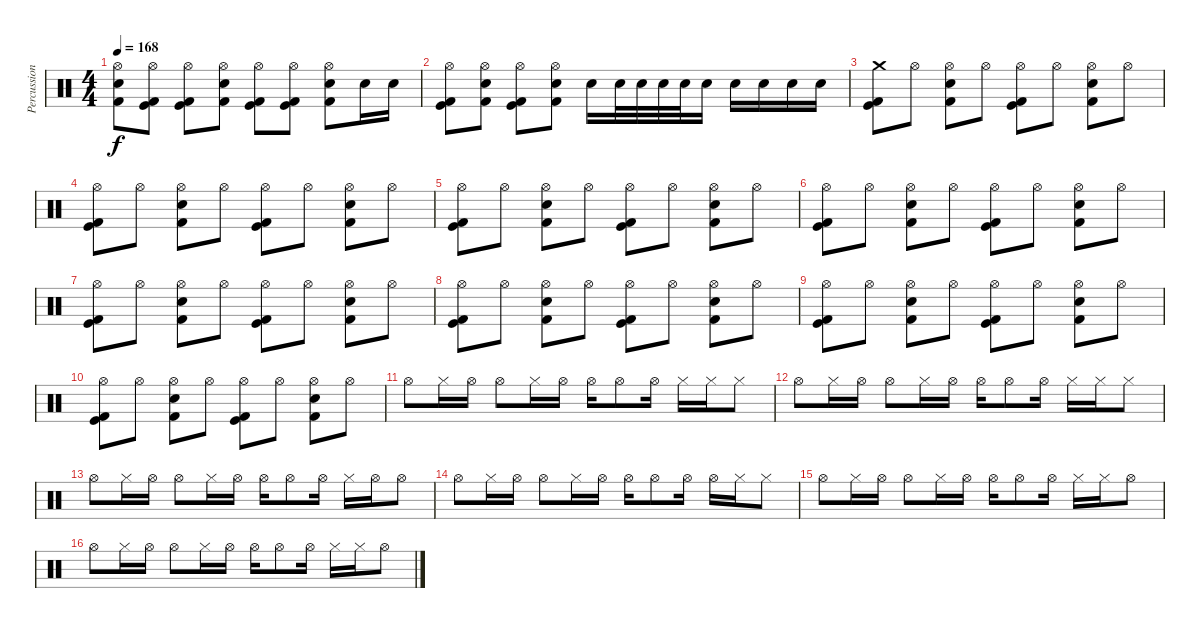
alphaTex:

\track ("Percussion" "Percussion") {instrument percussion}
\staff {score}
\articulation defaults
\ts (4 4)
\tempo 168
\clef neutral
\ks c
("Hi-Hat (open)" "Electric Snare (hit)" "Kick (hit) 2").8{dy f} ("Hi-Hat (open)" "Kick (hit)" "Kick (hit) 2").8 ("Hi-Hat (open)" "Kick (hit)" "Kick (hit) 2").8 ("Hi-Hat (open)" "Electric Snare (hit)" "Kick (hit) 2").8 ("Hi-Hat (open)" "Kick (hit)" "Kick (hit) 2").8 ("Hi-Hat (open)" "Kick (hit)" "Kick (hit) 2").8 ("Hi-Hat (open)" "Electric Snare (hit)" "Kick (hit) 2").8 "Electric Snare (hit)".16 "Electric Snare (hit)".16 |
("Hi-Hat (open)" "Kick (hit)" "Kick (hit) 2").8 ("Hi-Hat (open)" "Electric Snare (hit)" "Kick (hit) 2").8 ("Hi-Hat (open)" "Kick (hit)" "Kick (hit) 2").8 ("Hi-Hat (open)" "Electric Snare (hit)" "Kick (hit) 2").8 "Electric Snare (hit)".16 "Electric Snare (hit)".32 "Electric Snare (hit)".32 "Electric Snare (hit)".32 "Electric Snare (hit)".32 "Electric Snare (hit)".16 "Electric Snare (hit)".16 "Electric Snare (hit)".16 "Electric Snare (hit)".16 "Electric Snare (hit)".16 |
("Crash medium (hit)" "Kick (hit)" "Kick (hit) 2").8 "Hi-Hat (open)".8 ("Hi-Hat (open)" "Electric Snare (hit)" "Kick (hit) 2").8 "Hi-Hat (open)".8 ("Hi-Hat (open)" "Kick (hit)" "Kick (hit) 2").8 "Hi-Hat (open)".8 ("Hi-Hat (open)" "Electric Snare (hit)" "Kick (hit) 2").8 "Hi-Hat (open)".8 |
("Hi-Hat (open)" "Kick (hit)" "Kick (hit) 2").8 "Hi-Hat (open)".8 ("Hi-Hat (open)" "Electric Snare (hit)" "Kick (hit) 2").8 "Hi-Hat (open)".8 ("Hi-Hat (open)" "Kick (hit)" "Kick (hit) 2").8 "Hi-Hat (open)".8 ("Hi-Hat (open)" "Electric Snare (hit)" "Kick (hit) 2").8 "Hi-Hat (open)".8 |
("Hi-Hat (open)" "Kick (hit)" "Kick (hit) 2").8 "Hi-Hat (open)".8 ("Hi-Hat (open)" "Electric Snare (hit)" "Kick (hit) 2").8 "Hi-Hat (open)".8 ("Hi-Hat (open)" "Kick (hit)" "Kick (hit) 2").8 "Hi-Hat (open)".8 ("Hi-Hat (open)" "Electric Snare (hit)" "Kick (hit) 2").8 "Hi-Hat (open)".8 |
("Hi-Hat (open)" "Kick (hit)" "Kick (hit) 2").8 "Hi-Hat (open)".8 ("Hi-Hat (open)" "Electric Snare (hit)" "Kick (hit) 2").8 "Hi-Hat (open)".8 ("Hi-Hat (open)" "Kick (hit)" "Kick (hit) 2").8 "Hi-Hat (open)".8 ("Hi-Hat (open)" "Electric Snare (hit)" "Kick (hit) 2").8 "Hi-Hat (open)".8 |
("Hi-Hat (open)" "Kick (hit)" "Kick (hit) 2").8 "Hi-Hat (open)".8 ("Hi-Hat (open)" "Electric Snare (hit)" "Kick (hit) 2").8 "Hi-Hat (open)".8 ("Hi-Hat (open)" "Kick (hit)" "Kick (hit) 2").8 "Hi-Hat (open)".8 ("Hi-Hat (open)" "Electric Snare (hit)" "Kick (hit) 2").8 "Hi-Hat (open)".8 |
("Hi-Hat (open)" "Kick (hit)" "Kick (hit) 2").8 "Hi-Hat (open)".8 ("Hi-Hat (open)" "Electric Snare (hit)" "Kick (hit) 2").8 "Hi-Hat (open)".8 ("Hi-Hat (open)" "Kick (hit)" "Kick (hit) 2").8 "Hi-Hat (open)".8 ("Hi-Hat (open)" "Electric Snare (hit)" "Kick (hit) 2").8 "Hi-Hat (open)".8 |
("Hi-Hat (open)" "Kick (hit)" "Kick (hit) 2").8 "Hi-Hat (open)".8 ("Hi-Hat (open)" "Electric Snare (hit)" "Kick (hit) 2").8 "Hi-Hat (open)".8 ("Hi-Hat (open)" "Kick (hit)" "Kick (hit) 2").8 "Hi-Hat (open)".8 ("Hi-Hat (open)" "Electric Snare (hit)" "Kick (hit) 2").8 "Hi-Hat (open)".8 |
("Hi-Hat (open)" "Kick (hit)" "Kick (hit) 2").8 "Hi-Hat (open)".8 ("Hi-Hat (open)" "Electric Snare (hit)" "Kick (hit) 2").8 "Hi-Hat (open)".8 ("Hi-Hat (open)" "Kick (hit)" "Kick (hit) 2").8 "Hi-Hat (open)".8 ("Hi-Hat (open)" "Electric Snare (hit)" "Kick (hit) 2").8 "Hi-Hat (open)".8 |
"Hi-Hat (open)".8 "Hi-Hat (closed)".16 "Hi-Hat (open)".16 "Hi-Hat (open)".8 "Hi-Hat (closed)".16 "Hi-Hat (open)".16 "Hi-Hat (open)".16 "Hi-Hat (open)".8 "Hi-Hat (open)".16 "Hi-Hat (closed)".16 "Hi-Hat (closed)".16 "Hi-Hat (closed)".8 |
"Hi-Hat (open)".8 "Hi-Hat (closed)".16 "Hi-Hat (open)".16 "Hi-Hat (open)".8 "Hi-Hat (closed)".16 "Hi-Hat (open)".16 "Hi-Hat (open)".16 "Hi-Hat (open)".8 "Hi-Hat (open)".16 "Hi-Hat (closed)".16 "Hi-Hat (closed)".16 "Hi-Hat (closed)".8 |
"Hi-Hat (open)".8 "Hi-Hat (closed)".16 "Hi-Hat (open)".16 "Hi-Hat (open)".8 "Hi-Hat (closed)".16 "Hi-Hat (open)".16 "Hi-Hat (open)".16 "Hi-Hat (open)".8 "Hi-Hat (open)".16 "Hi-Hat (closed)".16 "Hi-Hat (open)".16 "Hi-Hat (open)".8 |
"Hi-Hat (open)".8 "Hi-Hat (closed)".16 "Hi-Hat (open)".16 "Hi-Hat (open)".8 "Hi-Hat (closed)".16 "Hi-Hat (open)".16 "Hi-Hat (open)".16 "Hi-Hat (open)".8 "Hi-Hat (open)".16 "Hi-Hat (open)".16 "Hi-Hat (closed)".16 "Hi-Hat (closed)".8 |
"Hi-Hat (open)".8 "Hi-Hat (closed)".16 "Hi-Hat (open)".16 "Hi-Hat (open)".8 "Hi-Hat (closed)".16 "Hi-Hat (open)".16 "Hi-Hat (open)".16 "Hi-Hat (open)".8 "Hi-Hat (open)".16 "Hi-Hat (closed)".16 "Hi-Hat (closed)".16 "Hi-Hat (open)".8 |
"Hi-Hat (open)".8 "Hi-Hat (closed)".16 "Hi-Hat (open)".16 "Hi-Hat (open)".8 "Hi-Hat (closed)".16 "Hi-Hat (open)".16 "Hi-Hat (open)".16 "Hi-Hat (open)".8 "Hi-Hat (open)".16 "Hi-Hat (closed)".16 "Hi-Hat (closed)".16 "Hi-Hat (open)".8
